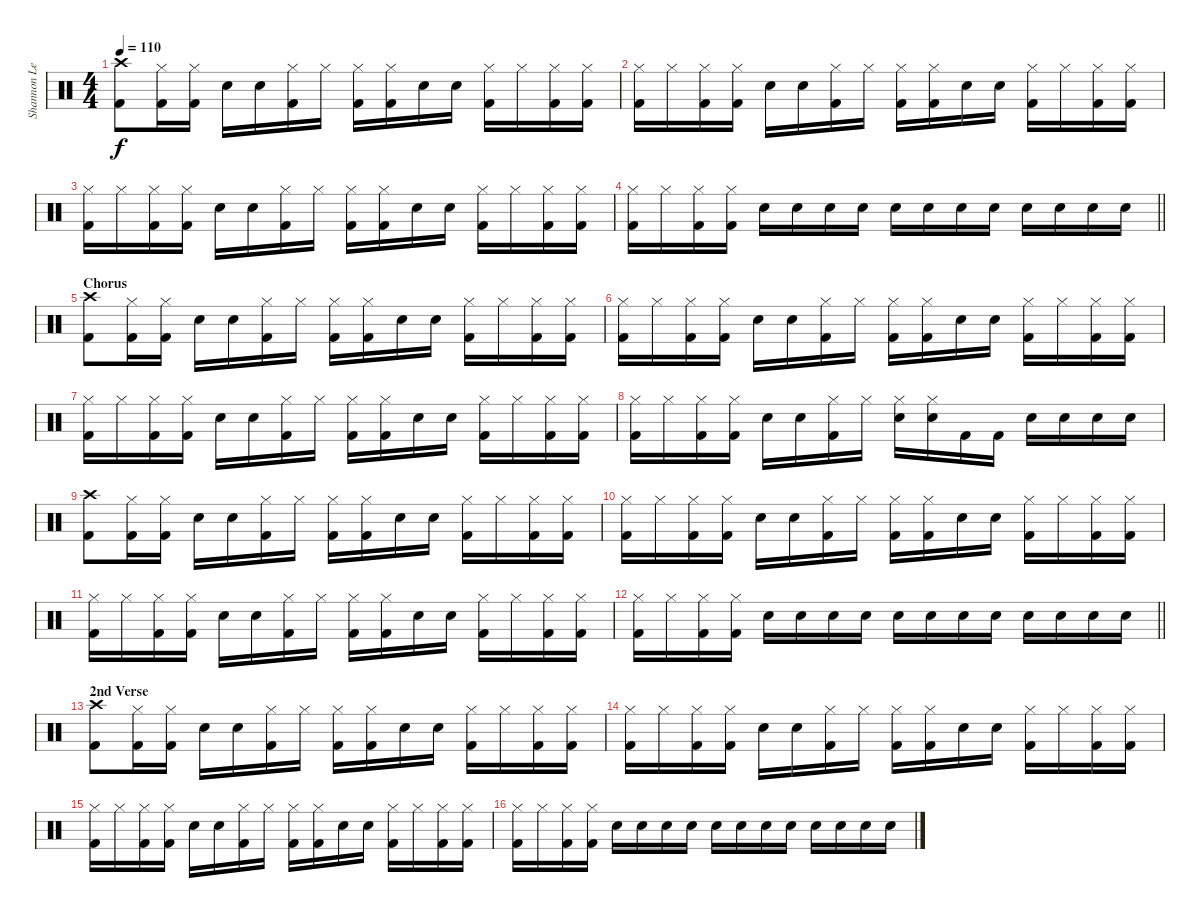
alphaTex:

\track ("Shannon Leto [Drums]" "Shannon Le") {instrument percussion}
\staff {score}
\articulation defaults
\ts (4 4)
\tempo 110
\clef neutral
\ks c
("Crash high (hit)" "Kick (hit) 2").8{dy f} ("Hi-Hat (closed)" "Kick (hit) 2").16 ("Hi-Hat (closed)" "Kick (hit) 2").16 "Electric Snare (hit)".16 "Electric Snare (hit)".16 ("Hi-Hat (closed)" "Kick (hit) 2").16 "Hi-Hat (closed)".16 ("Hi-Hat (closed)" "Kick (hit) 2").16 ("Hi-Hat (closed)" "Kick (hit) 2").16 "Electric Snare (hit)".16 "Electric Snare (hit)".16 ("Hi-Hat (closed)" "Kick (hit) 2").16 "Hi-Hat (closed)".16 ("Hi-Hat (closed)" "Kick (hit) 2").16 ("Hi-Hat (closed)" "Kick (hit) 2").16 |
("Hi-Hat (closed)" "Kick (hit) 2").16 "Hi-Hat (closed)".16 ("Hi-Hat (closed)" "Kick (hit) 2").16 ("Hi-Hat (closed)" "Kick (hit) 2").16 "Electric Snare (hit)".16 "Electric Snare (hit)".16 ("Hi-Hat (closed)" "Kick (hit) 2").16 "Hi-Hat (closed)".16 ("Hi-Hat (closed)" "Kick (hit) 2").16 ("Hi-Hat (closed)" "Kick (hit) 2").16 "Electric Snare (hit)".16 "Electric Snare (hit)".16 ("Hi-Hat (closed)" "Kick (hit) 2").16 "Hi-Hat (closed)".16 ("Hi-Hat (closed)" "Kick (hit) 2").16 ("Hi-Hat (closed)" "Kick (hit) 2").16 |
("Hi-Hat (closed)" "Kick (hit) 2").16 "Hi-Hat (closed)".16 ("Hi-Hat (closed)" "Kick (hit) 2").16 ("Hi-Hat (closed)" "Kick (hit) 2").16 "Electric Snare (hit)".16 "Electric Snare (hit)".16 ("Hi-Hat (closed)" "Kick (hit) 2").16 "Hi-Hat (closed)".16 ("Hi-Hat (closed)" "Kick (hit) 2").16 ("Hi-Hat (closed)" "Kick (hit) 2").16 "Electric Snare (hit)".16 "Electric Snare (hit)".16 ("Hi-Hat (closed)" "Kick (hit) 2").16 "Hi-Hat (closed)".16 ("Hi-Hat (closed)" "Kick (hit) 2").16 ("Hi-Hat (closed)" "Kick (hit) 2").16 |
\barLineRight lightlight
("Hi-Hat (closed)" "Kick (hit) 2").16 "Hi-Hat (closed)".16 ("Hi-Hat (closed)" "Kick (hit) 2").16 ("Hi-Hat (closed)" "Kick (hit) 2").16 "Electric Snare (hit)".16{volume 6} "Electric Snare (hit)".16 "Electric Snare (hit)".16 "Electric Snare (hit)".16{volume 9} "Electric Snare (hit)".16 "Electric Snare (hit)".16 "Electric Snare (hit)".16 "Electric Snare (hit)".16{volume 11} "Electric Snare (hit)".16 "Electric Snare (hit)".16 "Electric Snare (hit)".16{volume 13} "Electric Snare (hit)".16 |
\section ("" "Chorus")
("Crash high (hit)" "Kick (hit) 2").8 ("Hi-Hat (closed)" "Kick (hit) 2").16 ("Hi-Hat (closed)" "Kick (hit) 2").16 "Electric Snare (hit)".16 "Electric Snare (hit)".16 ("Hi-Hat (closed)" "Kick (hit) 2").16 "Hi-Hat (closed)".16 ("Hi-Hat (closed)" "Kick (hit) 2").16 ("Hi-Hat (closed)" "Kick (hit) 2").16 "Electric Snare (hit)".16 "Electric Snare (hit)".16 ("Hi-Hat (closed)" "Kick (hit) 2").16 "Hi-Hat (closed)".16 ("Hi-Hat (closed)" "Kick (hit) 2").16 ("Hi-Hat (closed)" "Kick (hit) 2").16 |
("Hi-Hat (closed)" "Kick (hit) 2").16 "Hi-Hat (closed)".16 ("Hi-Hat (closed)" "Kick (hit) 2").16 ("Hi-Hat (closed)" "Kick (hit) 2").16 "Electric Snare (hit)".16 "Electric Snare (hit)".16 ("Hi-Hat (closed)" "Kick (hit) 2").16 "Hi-Hat (closed)".16 ("Hi-Hat (closed)" "Kick (hit) 2").16 ("Hi-Hat (closed)" "Kick (hit) 2").16 "Electric Snare (hit)".16 "Electric Snare (hit)".16 ("Hi-Hat (closed)" "Kick (hit) 2").16 "Hi-Hat (closed)".16 ("Hi-Hat (closed)" "Kick (hit) 2").16 ("Hi-Hat (closed)" "Kick (hit) 2").16 |
("Hi-Hat (closed)" "Kick (hit) 2").16 "Hi-Hat (closed)".16 ("Hi-Hat (closed)" "Kick (hit) 2").16 ("Hi-Hat (closed)" "Kick (hit) 2").16 "Electric Snare (hit)".16 "Electric Snare (hit)".16 ("Hi-Hat (closed)" "Kick (hit) 2").16 "Hi-Hat (closed)".16 ("Hi-Hat (closed)" "Kick (hit) 2").16 ("Hi-Hat (closed)" "Kick (hit) 2").16 "Electric Snare (hit)".16 "Electric Snare (hit)".16 ("Hi-Hat (closed)" "Kick (hit) 2").16 "Hi-Hat (closed)".16 ("Hi-Hat (closed)" "Kick (hit) 2").16 ("Hi-Hat (closed)" "Kick (hit) 2").16 |
("Hi-Hat (closed)" "Kick (hit) 2").16 "Hi-Hat (closed)".16 ("Hi-Hat (closed)" "Kick (hit) 2").16 ("Hi-Hat (closed)" "Kick (hit) 2").16 "Electric Snare (hit)".16 "Electric Snare (hit)".16 ("Hi-Hat (closed)" "Kick (hit) 2").16 "Hi-Hat (closed)".16 ("Hi-Hat (closed)" "Electric Snare (hit)").16 ("Hi-Hat (closed)" "Electric Snare (hit)").16 "Kick (hit) 2".16 "Kick (hit) 2".16 "Electric Snare (hit)".16 "Electric Snare (hit)".16 "Electric Snare (hit)".16 "Electric Snare (hit)".16 |
("Crash high (hit)" "Kick (hit) 2").8 ("Hi-Hat (closed)" "Kick (hit) 2").16 ("Hi-Hat (closed)" "Kick (hit) 2").16 "Electric Snare (hit)".16 "Electric Snare (hit)".16 ("Hi-Hat (closed)" "Kick (hit) 2").16 "Hi-Hat (closed)".16 ("Hi-Hat (closed)" "Kick (hit) 2").16 ("Hi-Hat (closed)" "Kick (hit) 2").16 "Electric Snare (hit)".16 "Electric Snare (hit)".16 ("Hi-Hat (closed)" "Kick (hit) 2").16 "Hi-Hat (closed)".16 ("Hi-Hat (closed)" "Kick (hit) 2").16 ("Hi-Hat (closed)" "Kick (hit) 2").16 |
("Hi-Hat (closed)" "Kick (hit) 2").16 "Hi-Hat (closed)".16 ("Hi-Hat (closed)" "Kick (hit) 2").16 ("Hi-Hat (closed)" "Kick (hit) 2").16 "Electric Snare (hit)".16 "Electric Snare (hit)".16 ("Hi-Hat (closed)" "Kick (hit) 2").16 "Hi-Hat (closed)".16 ("Hi-Hat (closed)" "Kick (hit) 2").16 ("Hi-Hat (closed)" "Kick (hit) 2").16 "Electric Snare (hit)".16 "Electric Snare (hit)".16 ("Hi-Hat (closed)" "Kick (hit) 2").16 "Hi-Hat (closed)".16 ("Hi-Hat (closed)" "Kick (hit) 2").16 ("Hi-Hat (closed)" "Kick (hit) 2").16 |
("Hi-Hat (closed)" "Kick (hit) 2").16 "Hi-Hat (closed)".16 ("Hi-Hat (closed)" "Kick (hit) 2").16 ("Hi-Hat (closed)" "Kick (hit) 2").16 "Electric Snare (hit)".16 "Electric Snare (hit)".16 ("Hi-Hat (closed)" "Kick (hit) 2").16 "Hi-Hat (closed)".16 ("Hi-Hat (closed)" "Kick (hit) 2").16 ("Hi-Hat (closed)" "Kick (hit) 2").16 "Electric Snare (hit)".16 "Electric Snare (hit)".16 ("Hi-Hat (closed)" "Kick (hit) 2").16 "Hi-Hat (closed)".16 ("Hi-Hat (closed)" "Kick (hit) 2").16 ("Hi-Hat (closed)" "Kick (hit) 2").16 |
\barLineRight lightlight
("Hi-Hat (closed)" "Kick (hit) 2").16 "Hi-Hat (closed)".16 ("Hi-Hat (closed)" "Kick (hit) 2").16 ("Hi-Hat (closed)" "Kick (hit) 2").16 "Electric Snare (hit)".16{volume 6} "Electric Snare (hit)".16 "Electric Snare (hit)".16 "Electric Snare (hit)".16{volume 9} "Electric Snare (hit)".16 "Electric Snare (hit)".16 "Electric Snare (hit)".16 "Electric Snare (hit)".16{volume 11} "Electric Snare (hit)".16 "Electric Snare (hit)".16 "Electric Snare (hit)".16{volume 13} "Electric Snare (hit)".16 |
\section ("" "2nd Verse")
("Crash high (hit)" "Kick (hit) 2").8 ("Hi-Hat (closed)" "Kick (hit) 2").16 ("Hi-Hat (closed)" "Kick (hit) 2").16 "Electric Snare (hit)".16 "Electric Snare (hit)".16 ("Hi-Hat (closed)" "Kick (hit) 2").16 "Hi-Hat (closed)".16 ("Hi-Hat (closed)" "Kick (hit) 2").16 ("Hi-Hat (closed)" "Kick (hit) 2").16 "Electric Snare (hit)".16 "Electric Snare (hit)".16 ("Hi-Hat (closed)" "Kick (hit) 2").16 "Hi-Hat (closed)".16 ("Hi-Hat (closed)" "Kick (hit) 2").16 ("Hi-Hat (closed)" "Kick (hit) 2").16 |
("Hi-Hat (closed)" "Kick (hit) 2").16 "Hi-Hat (closed)".16 ("Hi-Hat (closed)" "Kick (hit) 2").16 ("Hi-Hat (closed)" "Kick (hit) 2").16 "Electric Snare (hit)".16 "Electric Snare (hit)".16 ("Hi-Hat (closed)" "Kick (hit) 2").16 "Hi-Hat (closed)".16 ("Hi-Hat (closed)" "Kick (hit) 2").16 ("Hi-Hat (closed)" "Kick (hit) 2").16 "Electric Snare (hit)".16 "Electric Snare (hit)".16 ("Hi-Hat (closed)" "Kick (hit) 2").16 "Hi-Hat (closed)".16 ("Hi-Hat (closed)" "Kick (hit) 2").16 ("Hi-Hat (closed)" "Kick (hit) 2").16 |
("Hi-Hat (closed)" "Kick (hit) 2").16 "Hi-Hat (closed)".16 ("Hi-Hat (closed)" "Kick (hit) 2").16 ("Hi-Hat (closed)" "Kick (hit) 2").16 "Electric Snare (hit)".16 "Electric Snare (hit)".16 ("Hi-Hat (closed)" "Kick (hit) 2").16 "Hi-Hat (closed)".16 ("Hi-Hat (closed)" "Kick (hit) 2").16 ("Hi-Hat (closed)" "Kick (hit) 2").16 "Electric Snare (hit)".16 "Electric Snare (hit)".16 ("Hi-Hat (closed)" "Kick (hit) 2").16 "Hi-Hat (closed)".16 ("Hi-Hat (closed)" "Kick (hit) 2").16 ("Hi-Hat (closed)" "Kick (hit) 2").16 |
("Hi-Hat (closed)" "Kick (hit) 2").16 "Hi-Hat (closed)".16 ("Hi-Hat (closed)" "Kick (hit) 2").16 ("Hi-Hat (closed)" "Kick (hit) 2").16 "Electric Snare (hit)".16{volume 6} "Electric Snare (hit)".16 "Electric Snare (hit)".16 "Electric Snare (hit)".16{volume 9} "Electric Snare (hit)".16 "Electric Snare (hit)".16 "Electric Snare (hit)".16 "Electric Snare (hit)".16{volume 11} "Electric Snare (hit)".16 "Electric Snare (hit)".16 "Electric Snare (hit)".16{volume 13} "Electric Snare (hit)".16
